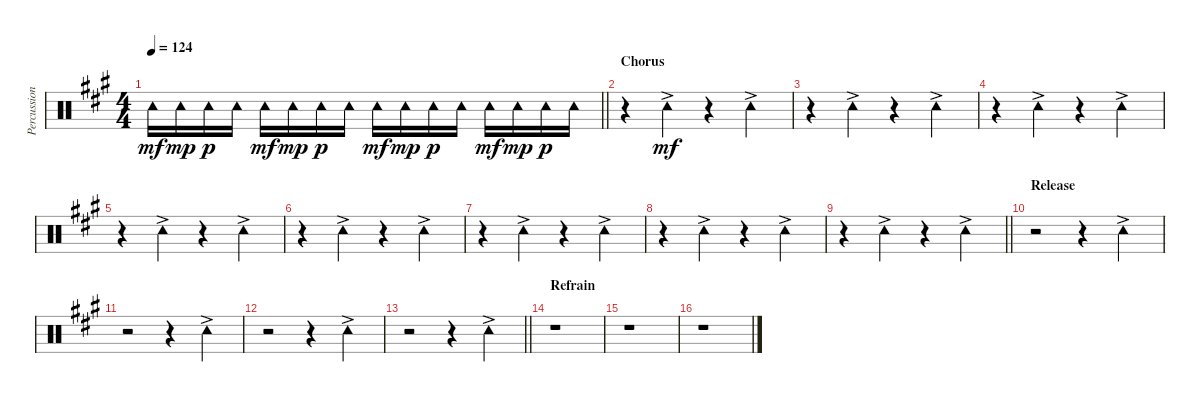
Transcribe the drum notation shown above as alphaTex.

\track ("Percussion" "Percussion") {instrument percussion}
\staff {score}
\articulation defaults
\ts (4 4)
\tempo 124
\clef neutral
\barLineRight lightlight
\ks a "Tambourine (hit)".16{dy mf} "Tambourine (hit)".16{dy mp} "Tambourine (hit)".16{dy p} "Tambourine (hit)".16 "Tambourine (hit)".16{dy mf} "Tambourine (hit)".16{dy mp} "Tambourine (hit)".16{dy p} "Tambourine (hit)".16 "Tambourine (hit)".16{dy mf} "Tambourine (hit)".16{dy mp} "Tambourine (hit)".16{dy p} "Tambourine (hit)".16 "Tambourine (hit)".16{dy mf} "Tambourine (hit)".16{dy mp} "Tambourine (hit)".16{dy p} "Tambourine (hit)".16
|
\section ("" "Chorus")
r.4 "Tambourine (hit)"{ac}.4{dy mf} r.4 "Tambourine (hit)"{ac}.4 |
r.4 "Tambourine (hit)"{ac}.4 r.4 "Tambourine (hit)"{ac}.4 |
r.4 "Tambourine (hit)"{ac}.4 r.4 "Tambourine (hit)"{ac}.4 |
r.4 "Tambourine (hit)"{ac}.4 r.4 "Tambourine (hit)"{ac}.4 |
r.4 "Tambourine (hit)"{ac}.4 r.4 "Tambourine (hit)"{ac}.4 |
r.4 "Tambourine (hit)"{ac}.4 r.4 "Tambourine (hit)"{ac}.4 |
r.4 "Tambourine (hit)"{ac}.4 r.4 "Tambourine (hit)"{ac}.4 |
\barLineRight lightlight
r.4 "Tambourine (hit)"{ac}.4 r.4 "Tambourine (hit)"{ac}.4 |
\section ("" "Release")
r.2 r.4 "Tambourine (hit)"{ac}.4 |
r.2 r.4 "Tambourine (hit)"{ac}.4 |
r.2 r.4 "Tambourine (hit)"{ac}.4 |
\barLineRight lightlight
r.2 r.4 "Tambourine (hit)"{ac}.4 |
\section ("" "Refrain")
r.1 |
r.1 |
r.1
